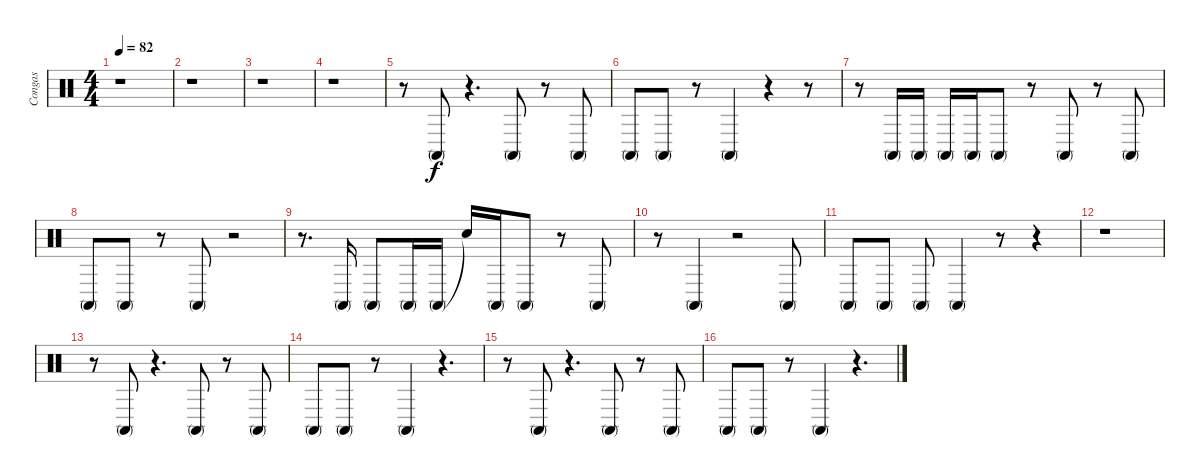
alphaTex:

\track ("Congas" "Congas") {instrument percussion}
\staff {score}
\articulation defaults
\ts (4 4)
\tempo 82
\clef neutral
\ks c
r.1{dy f} |
r.1 |
r.1 |
r.1 |
r.8 "Conga high (mute)".8 r.4{d} "Conga high (mute)".8 r.8 "Conga high (mute)".8 |
"Conga high (mute)".8 "Conga high (mute)".8 r.8 "Conga high (mute)".4 r.4 r.8 |
r.8 "Conga high (mute)".16 "Conga high (mute)".16 "Conga high (mute)".16 "Conga high (mute)".16 "Conga high (mute)".8 r.8 "Conga high (mute)".8 r.8 "Conga high (mute)".8 |
"Conga high (mute)".8 "Conga high (mute)".8 r.8 "Conga high (mute)".8 r.2 |
r.8{d} "Conga high (mute)".16 "Conga high (mute)".8 "Conga high (mute)".16 "Conga high (mute)".16 "Snare (hit)"{t}.16 "Conga high (mute)".16 "Conga high (mute)".8 r.8 "Conga high (mute)".8 |
r.8 "Conga high (mute)".4 r.2 "Conga high (mute)".8 |
"Conga high (mute)".8 "Conga high (mute)".8 "Conga high (mute)".8 "Conga high (mute)".4 r.8 r.4 |
r.1 |
r.8 "Conga high (mute)".8 r.4{d} "Conga high (mute)".8 r.8 "Conga high (mute)".8 |
"Conga high (mute)".8 "Conga high (mute)".8 r.8 "Conga high (mute)".4 r.4{d} |
r.8 "Conga high (mute)".8 r.4{d} "Conga high (mute)".8 r.8 "Conga high (mute)".8 |
"Conga high (mute)".8 "Conga high (mute)".8 r.8 "Conga high (mute)".4 r.4{d}
